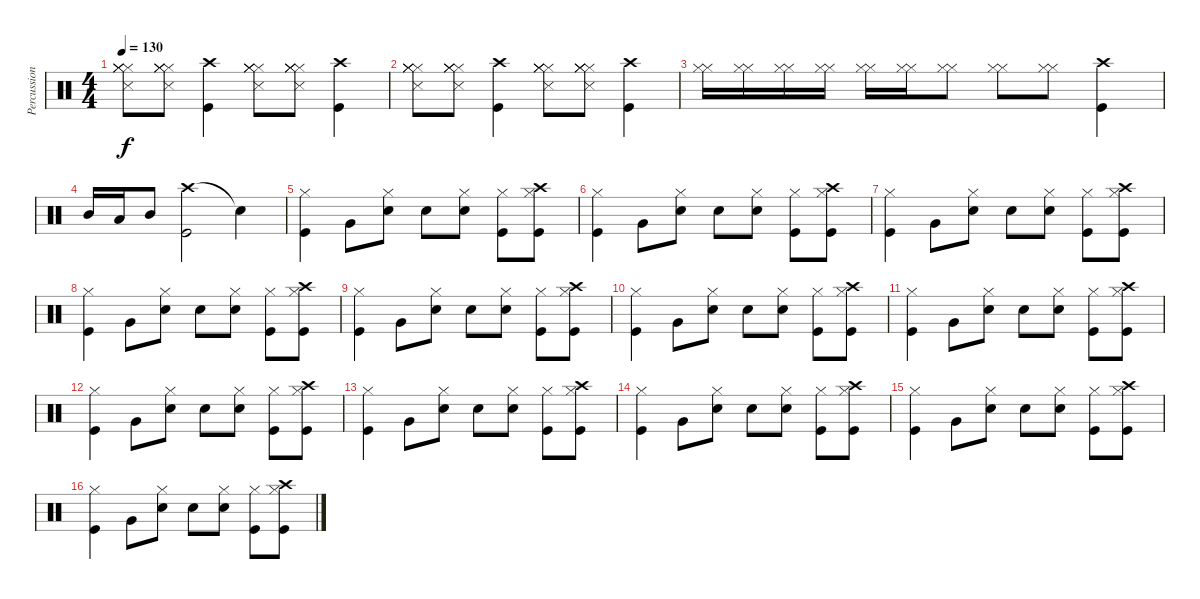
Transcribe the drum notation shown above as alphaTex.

\track ("Percussion" "Percussion") {instrument percussion}
\staff {score}
\articulation defaults
\ts (4 4)
\tempo 130
\clef neutral
\ks c
("Snare (side stick) 3" "Hi-Hat (closed)" "Hi-Hat (closed)" "Hi-Hat (closed)" "Hi-Hat (closed)").8{dy f} ("Snare (side stick) 3" "Hi-Hat (closed)" "Hi-Hat (closed)" "Hi-Hat (closed)" "Hi-Hat (closed)").8 ("Crash high (hit)" "Kick (hit)").4 ("Snare (side stick) 3" "Hi-Hat (closed)" "Hi-Hat (closed)" "Hi-Hat (closed)" "Hi-Hat (closed)").8 ("Snare (side stick) 3" "Hi-Hat (closed)" "Hi-Hat (closed)" "Hi-Hat (closed)" "Hi-Hat (closed)").8 ("Crash high (hit)" "Kick (hit)").4 |
("Snare (side stick) 3" "Hi-Hat (closed)" "Hi-Hat (closed)" "Hi-Hat (closed)" "Hi-Hat (closed)").8 ("Snare (side stick) 3" "Hi-Hat (closed)" "Hi-Hat (closed)" "Hi-Hat (closed)" "Hi-Hat (closed)").8 ("Crash high (hit)" "Kick (hit)").4 ("Snare (side stick) 3" "Hi-Hat (closed)" "Hi-Hat (closed)" "Hi-Hat (closed)" "Hi-Hat (closed)").8 ("Snare (side stick) 3" "Hi-Hat (closed)" "Hi-Hat (closed)" "Hi-Hat (closed)" "Hi-Hat (closed)").8 ("Crash high (hit)" "Kick (hit)").4 |
("Hi-Hat (closed)" "Hi-Hat (closed)").16 ("Hi-Hat (closed)" "Hi-Hat (closed)").16 ("Hi-Hat (closed)" "Hi-Hat (closed)").16 ("Hi-Hat (closed)" "Hi-Hat (closed)").16 ("Hi-Hat (closed)" "Hi-Hat (closed)").16 ("Hi-Hat (closed)" "Hi-Hat (closed)").16 ("Hi-Hat (closed)" "Hi-Hat (closed)").8 ("Hi-Hat (closed)" "Hi-Hat (closed)").8 ("Hi-Hat (closed)" "Hi-Hat (closed)").8 ("Crash high (hit)" "Kick (hit)").4 |
"Mid Tom (hit)".16 "Low Tom (hit)".16 "Mid Tom (hit)".8 ("Crash high (hit)" "Kick (hit)").2 "Snare (hit)"{t}.4 |
("Kick (hit)" "Hi-Hat (closed)").4 "Very Low Tom (hit)".8 ("Snare (hit) 2" "Hi-Hat (closed)").8 "Snare (hit) 2".8 ("Snare (hit) 2" "Hi-Hat (closed)").8 ("Kick (hit)" "Hi-Hat (closed)").8 ("Kick (hit)" "Crash high (hit)" "Hi-Hat (closed)").8 |
("Kick (hit)" "Hi-Hat (closed)").4 "Very Low Tom (hit)".8 ("Snare (hit) 2" "Hi-Hat (closed)").8 "Snare (hit) 2".8 ("Snare (hit) 2" "Hi-Hat (closed)").8 ("Kick (hit)" "Hi-Hat (closed)").8 ("Kick (hit)" "Crash high (hit)" "Hi-Hat (closed)").8 |
("Kick (hit)" "Hi-Hat (closed)").4 "Very Low Tom (hit)".8 ("Snare (hit) 2" "Hi-Hat (closed)").8 "Snare (hit) 2".8 ("Snare (hit) 2" "Hi-Hat (closed)").8 ("Kick (hit)" "Hi-Hat (closed)").8 ("Kick (hit)" "Crash high (hit)" "Hi-Hat (closed)").8 |
("Kick (hit)" "Hi-Hat (closed)").4 "Very Low Tom (hit)".8 ("Snare (hit) 2" "Hi-Hat (closed)").8 "Snare (hit) 2".8 ("Snare (hit) 2" "Hi-Hat (closed)").8 ("Kick (hit)" "Hi-Hat (closed)").8 ("Kick (hit)" "Crash high (hit)" "Hi-Hat (closed)").8 |
("Kick (hit)" "Hi-Hat (closed)").4 "Very Low Tom (hit)".8 ("Snare (hit) 2" "Hi-Hat (closed)").8 "Snare (hit) 2".8 ("Snare (hit) 2" "Hi-Hat (closed)").8 ("Kick (hit)" "Hi-Hat (closed)").8 ("Kick (hit)" "Crash high (hit)" "Hi-Hat (closed)").8 |
("Kick (hit)" "Hi-Hat (closed)").4 "Very Low Tom (hit)".8 ("Snare (hit) 2" "Hi-Hat (closed)").8 "Snare (hit) 2".8 ("Snare (hit) 2" "Hi-Hat (closed)").8 ("Kick (hit)" "Hi-Hat (closed)").8 ("Kick (hit)" "Crash high (hit)" "Hi-Hat (closed)").8 |
("Kick (hit)" "Hi-Hat (closed)").4 "Very Low Tom (hit)".8 ("Snare (hit) 2" "Hi-Hat (closed)").8 "Snare (hit) 2".8 ("Snare (hit) 2" "Hi-Hat (closed)").8 ("Kick (hit)" "Hi-Hat (closed)").8 ("Kick (hit)" "Crash high (hit)" "Hi-Hat (closed)").8 |
("Kick (hit)" "Hi-Hat (closed)").4 "Very Low Tom (hit)".8 ("Snare (hit) 2" "Hi-Hat (closed)").8 "Snare (hit) 2".8 ("Snare (hit) 2" "Hi-Hat (closed)").8 ("Kick (hit)" "Hi-Hat (closed)").8 ("Kick (hit)" "Crash high (hit)" "Hi-Hat (closed)").8 |
("Kick (hit)" "Hi-Hat (closed)").4 "Very Low Tom (hit)".8 ("Snare (hit) 2" "Hi-Hat (closed)").8 "Snare (hit) 2".8 ("Snare (hit) 2" "Hi-Hat (closed)").8 ("Kick (hit)" "Hi-Hat (closed)").8 ("Kick (hit)" "Crash high (hit)" "Hi-Hat (closed)").8 |
("Kick (hit)" "Hi-Hat (closed)").4 "Very Low Tom (hit)".8 ("Snare (hit) 2" "Hi-Hat (closed)").8 "Snare (hit) 2".8 ("Snare (hit) 2" "Hi-Hat (closed)").8 ("Kick (hit)" "Hi-Hat (closed)").8 ("Kick (hit)" "Crash high (hit)" "Hi-Hat (closed)").8 |
("Kick (hit)" "Hi-Hat (closed)").4 "Very Low Tom (hit)".8 ("Snare (hit) 2" "Hi-Hat (closed)").8 "Snare (hit) 2".8 ("Snare (hit) 2" "Hi-Hat (closed)").8 ("Kick (hit)" "Hi-Hat (closed)").8 ("Kick (hit)" "Crash high (hit)" "Hi-Hat (closed)").8 |
("Kick (hit)" "Hi-Hat (closed)").4 "Very Low Tom (hit)".8 ("Snare (hit) 2" "Hi-Hat (closed)").8 "Snare (hit) 2".8 ("Snare (hit) 2" "Hi-Hat (closed)").8 ("Kick (hit)" "Hi-Hat (closed)").8 ("Kick (hit)" "Crash high (hit)" "Hi-Hat (closed)").8
